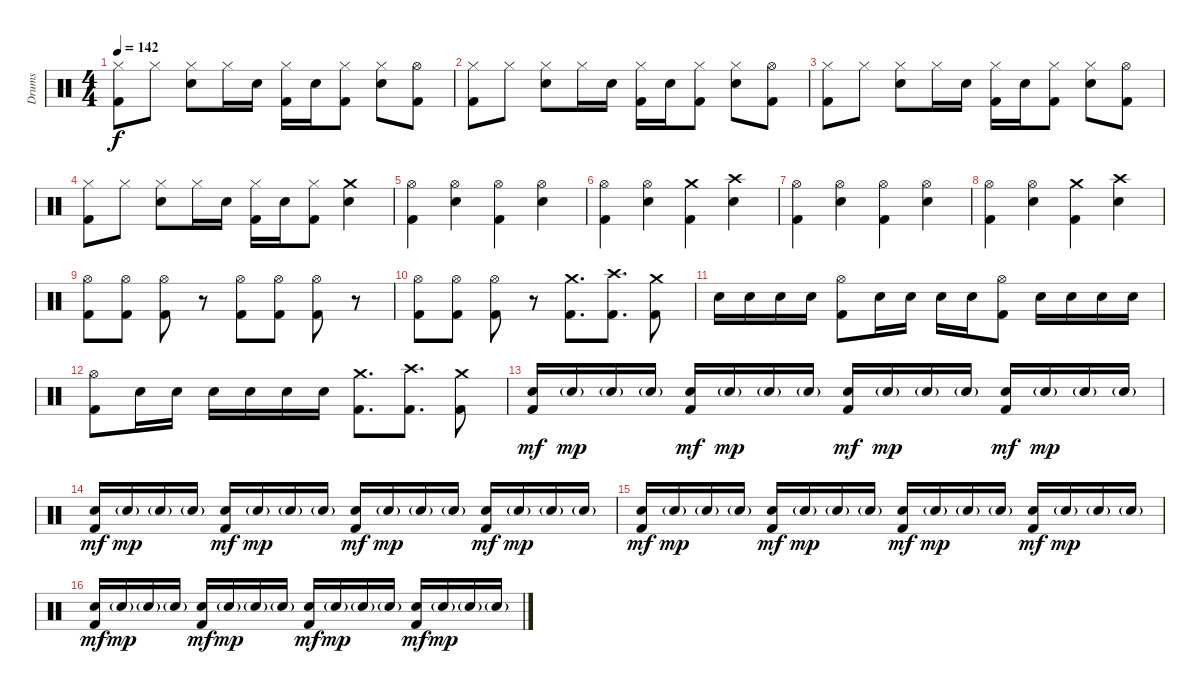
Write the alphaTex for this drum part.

\track ("Drums" "Drums") {instrument percussion}
\staff {score}
\articulation defaults
\ts (4 4)
\tempo 142
\clef neutral
\ks c
("Hi-Hat (closed)" "Kick (hit) 2").8{dy f} "Hi-Hat (closed)".8 ("Hi-Hat (closed)" "Electric Snare (hit)").8 "Hi-Hat (closed)".16 "Electric Snare (hit)".16 ("Hi-Hat (closed)" "Kick (hit) 2").16 "Electric Snare (hit)".16 ("Hi-Hat (closed)" "Kick (hit) 2").8 ("Hi-Hat (closed)" "Electric Snare (hit)").8 ("Hi-Hat (open)" "Kick (hit) 2").8 |
("Hi-Hat (closed)" "Kick (hit) 2").8 "Hi-Hat (closed)".8 ("Hi-Hat (closed)" "Electric Snare (hit)").8 "Hi-Hat (closed)".16 "Electric Snare (hit)".16 ("Hi-Hat (closed)" "Kick (hit) 2").16 "Electric Snare (hit)".16 ("Hi-Hat (closed)" "Kick (hit) 2").8 ("Hi-Hat (closed)" "Electric Snare (hit)").8 ("Hi-Hat (open)" "Kick (hit) 2").8 |
("Hi-Hat (closed)" "Kick (hit) 2").8 "Hi-Hat (closed)".8 ("Hi-Hat (closed)" "Electric Snare (hit)").8 "Hi-Hat (closed)".16 "Electric Snare (hit)".16 ("Hi-Hat (closed)" "Kick (hit) 2").16 "Electric Snare (hit)".16 ("Hi-Hat (closed)" "Kick (hit) 2").8 ("Hi-Hat (closed)" "Electric Snare (hit)").8 ("Hi-Hat (open)" "Kick (hit) 2").8 |
("Hi-Hat (closed)" "Kick (hit) 2").8 "Hi-Hat (closed)".8 ("Hi-Hat (closed)" "Electric Snare (hit)").8 "Hi-Hat (closed)".16 "Electric Snare (hit)".16 ("Hi-Hat (closed)" "Kick (hit) 2").16 "Electric Snare (hit)".16 ("Hi-Hat (closed)" "Kick (hit) 2").8 ("Crash medium (hit)" "Electric Snare (hit)").4 |
("Hi-Hat (open)" "Kick (hit) 2").4 ("Hi-Hat (open)" "Electric Snare (hit)").4 ("Hi-Hat (open)" "Kick (hit) 2").4 ("Hi-Hat (open)" "Electric Snare (hit)").4 |
("Hi-Hat (open)" "Kick (hit) 2").4 ("Hi-Hat (open)" "Electric Snare (hit)").4 ("Crash medium (hit)" "Kick (hit) 2").4 ("Crash high (hit)" "Electric Snare (hit)").4 |
("Hi-Hat (open)" "Kick (hit) 2").4 ("Hi-Hat (open)" "Electric Snare (hit)").4 ("Hi-Hat (open)" "Kick (hit) 2").4 ("Hi-Hat (open)" "Electric Snare (hit)").4 |
("Hi-Hat (open)" "Kick (hit) 2").4 ("Hi-Hat (open)" "Electric Snare (hit)").4 ("Crash medium (hit)" "Kick (hit) 2").4 ("Crash high (hit)" "Electric Snare (hit)").4 |
("Hi-Hat (open)" "Kick (hit) 2").8 ("Hi-Hat (open)" "Kick (hit) 2").8 ("Hi-Hat (open)" "Kick (hit) 2").8 r.8 ("Hi-Hat (open)" "Kick (hit) 2").8 ("Hi-Hat (open)" "Kick (hit) 2").8 ("Hi-Hat (open)" "Kick (hit) 2").8 r.8 |
("Hi-Hat (open)" "Kick (hit) 2").8 ("Hi-Hat (open)" "Kick (hit) 2").8 ("Hi-Hat (open)" "Kick (hit) 2").8 r.8 ("Crash medium (hit)" "Kick (hit) 2").8{d} ("Crash high (hit)" "Kick (hit) 2").8{d} ("Crash medium (hit)" "Kick (hit) 2").8 |
"Electric Snare (hit)".16 "Electric Snare (hit)".16 "Electric Snare (hit)".16 "Electric Snare (hit)".16 ("Hi-Hat (open)" "Kick (hit) 2").8 "Electric Snare (hit)".16 "Electric Snare (hit)".16 "Electric Snare (hit)".16 "Electric Snare (hit)".16 ("Hi-Hat (open)" "Kick (hit) 2").8 "Electric Snare (hit)".16 "Electric Snare (hit)".16 "Electric Snare (hit)".16 "Electric Snare (hit)".16 |
("Hi-Hat (open)" "Kick (hit) 2").8 "Electric Snare (hit)".16 "Electric Snare (hit)".16 "Electric Snare (hit)".16 "Electric Snare (hit)".16 "Electric Snare (hit)".16 "Electric Snare (hit)".16 ("Crash medium (hit)" "Kick (hit) 2").8{d} ("Crash high (hit)" "Kick (hit) 2").8{d} ("Crash medium (hit)" "Kick (hit) 2").8 |
("Electric Snare (hit)" "Kick (hit) 2").16{dy mf} "Electric Snare (hit)"{g}.16{dy mp} "Electric Snare (hit)"{g}.16 "Electric Snare (hit)"{g}.16 ("Electric Snare (hit)" "Kick (hit) 2").16{dy mf} "Electric Snare (hit)"{g}.16{dy mp} "Electric Snare (hit)"{g}.16 "Electric Snare (hit)"{g}.16 ("Electric Snare (hit)" "Kick (hit) 2").16{dy mf} "Electric Snare (hit)"{g}.16{dy mp} "Electric Snare (hit)"{g}.16 "Electric Snare (hit)"{g}.16 ("Electric Snare (hit)" "Kick (hit) 2").16{dy mf} "Electric Snare (hit)"{g}.16{dy mp} "Electric Snare (hit)"{g}.16 "Electric Snare (hit)"{g}.16 |
("Electric Snare (hit)" "Kick (hit) 2").16{dy mf} "Electric Snare (hit)"{g}.16{dy mp} "Electric Snare (hit)"{g}.16 "Electric Snare (hit)"{g}.16 ("Electric Snare (hit)" "Kick (hit) 2").16{dy mf} "Electric Snare (hit)"{g}.16{dy mp} "Electric Snare (hit)"{g}.16 "Electric Snare (hit)"{g}.16 ("Electric Snare (hit)" "Kick (hit) 2").16{dy mf} "Electric Snare (hit)"{g}.16{dy mp} "Electric Snare (hit)"{g}.16 "Electric Snare (hit)"{g}.16 ("Electric Snare (hit)" "Kick (hit) 2").16{dy mf} "Electric Snare (hit)"{g}.16{dy mp} "Electric Snare (hit)"{g}.16 "Electric Snare (hit)"{g}.16 |
("Electric Snare (hit)" "Kick (hit) 2").16{dy mf} "Electric Snare (hit)"{g}.16{dy mp} "Electric Snare (hit)"{g}.16 "Electric Snare (hit)"{g}.16 ("Electric Snare (hit)" "Kick (hit) 2").16{dy mf} "Electric Snare (hit)"{g}.16{dy mp} "Electric Snare (hit)"{g}.16 "Electric Snare (hit)"{g}.16 ("Electric Snare (hit)" "Kick (hit) 2").16{dy mf} "Electric Snare (hit)"{g}.16{dy mp} "Electric Snare (hit)"{g}.16 "Electric Snare (hit)"{g}.16 ("Electric Snare (hit)" "Kick (hit) 2").16{dy mf} "Electric Snare (hit)"{g}.16{dy mp} "Electric Snare (hit)"{g}.16 "Electric Snare (hit)"{g}.16 |
("Electric Snare (hit)" "Kick (hit) 2").16{dy mf} "Electric Snare (hit)"{g}.16{dy mp} "Electric Snare (hit)"{g}.16 "Electric Snare (hit)"{g}.16 ("Electric Snare (hit)" "Kick (hit) 2").16{dy mf} "Electric Snare (hit)"{g}.16{dy mp} "Electric Snare (hit)"{g}.16 "Electric Snare (hit)"{g}.16 ("Electric Snare (hit)" "Kick (hit) 2").16{dy mf} "Electric Snare (hit)"{g}.16{dy mp} "Electric Snare (hit)"{g}.16 "Electric Snare (hit)"{g}.16 ("Electric Snare (hit)" "Kick (hit) 2").16{dy mf} "Electric Snare (hit)"{g}.16{dy mp} "Electric Snare (hit)"{g}.16 "Electric Snare (hit)"{g}.16
